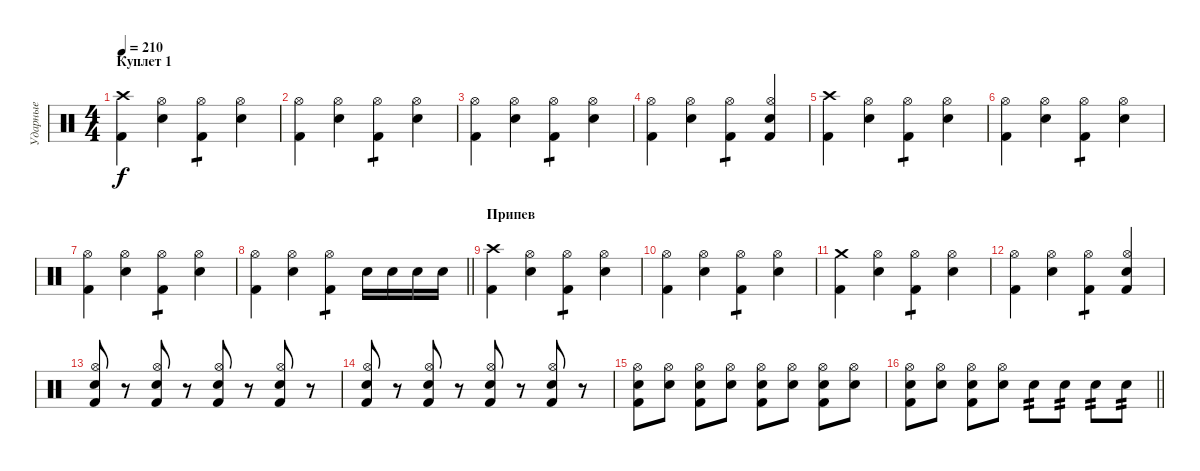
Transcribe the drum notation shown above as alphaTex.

\track ("Ударные" "Ударные") {instrument percussion}
\staff {score}
\articulation defaults
\ts (4 4)
\section ("" "Куплет 1")
\tempo 210
\clef neutral
\ks c
("Kick (hit) 2" "Crash high (hit)").4{dy f} ("Hi-Hat (open)" "Electric Snare (hit)").4 ("Kick (hit) 2" "Hi-Hat (open)").4{tp 1} ("Hi-Hat (open)" "Electric Snare (hit)").4 |
("Kick (hit) 2" "Hi-Hat (open)").4 ("Hi-Hat (open)" "Electric Snare (hit)").4 ("Kick (hit) 2" "Hi-Hat (open)").4{tp 1} ("Hi-Hat (open)" "Electric Snare (hit)").4 |
("Kick (hit) 2" "Hi-Hat (open)").4 ("Hi-Hat (open)" "Electric Snare (hit)").4 ("Kick (hit) 2" "Hi-Hat (open)").4{tp 1} ("Hi-Hat (open)" "Electric Snare (hit)").4 |
("Kick (hit) 2" "Hi-Hat (open)").4 ("Hi-Hat (open)" "Electric Snare (hit)").4 ("Kick (hit) 2" "Hi-Hat (open)").4{tp 1} ("Hi-Hat (open)" "Electric Snare (hit)" "Kick (hit) 2").4 |
("Kick (hit) 2" "Crash high (hit)").4 ("Hi-Hat (open)" "Electric Snare (hit)").4 ("Kick (hit) 2" "Hi-Hat (open)").4{tp 1} ("Hi-Hat (open)" "Electric Snare (hit)").4 |
("Kick (hit) 2" "Hi-Hat (open)").4 ("Hi-Hat (open)" "Electric Snare (hit)").4 ("Kick (hit) 2" "Hi-Hat (open)").4{tp 1} ("Hi-Hat (open)" "Electric Snare (hit)").4 |
("Kick (hit) 2" "Hi-Hat (open)").4 ("Hi-Hat (open)" "Electric Snare (hit)").4 ("Kick (hit) 2" "Hi-Hat (open)").4{tp 1} ("Hi-Hat (open)" "Electric Snare (hit)").4 |
\barLineRight lightlight
("Kick (hit) 2" "Hi-Hat (open)").4 ("Hi-Hat (open)" "Electric Snare (hit)").4 ("Kick (hit) 2" "Hi-Hat (open)").4{tp 1} "Electric Snare (hit)".16 "Electric Snare (hit)".16 "Electric Snare (hit)".16 "Electric Snare (hit)".16 |
\section ("" "Припев")
("Kick (hit) 2" "Crash high (hit)").4 ("Hi-Hat (open)" "Electric Snare (hit)").4 ("Kick (hit) 2" "Hi-Hat (open)").4{tp 1} ("Hi-Hat (open)" "Electric Snare (hit)").4 |
("Kick (hit) 2" "Hi-Hat (open)").4 ("Hi-Hat (open)" "Electric Snare (hit)").4 ("Kick (hit) 2" "Hi-Hat (open)").4{tp 1} ("Hi-Hat (open)" "Electric Snare (hit)").4 |
("Kick (hit) 2" "Crash medium (hit)").4 ("Hi-Hat (open)" "Electric Snare (hit)").4 ("Kick (hit) 2" "Hi-Hat (open)").4{tp 1} ("Hi-Hat (open)" "Electric Snare (hit)").4 |
("Kick (hit) 2" "Hi-Hat (open)").4 ("Hi-Hat (open)" "Electric Snare (hit)").4 ("Kick (hit) 2" "Hi-Hat (open)").4{tp 1} ("Hi-Hat (open)" "Electric Snare (hit)" "Kick (hit) 2").4 |
("Kick (hit) 2" "Hi-Hat (open)" "Electric Snare (hit)").8 r.8 ("Kick (hit) 2" "Hi-Hat (open)" "Electric Snare (hit)").8 r.8 ("Kick (hit) 2" "Hi-Hat (open)" "Electric Snare (hit)").8 r.8 ("Kick (hit) 2" "Hi-Hat (open)" "Electric Snare (hit)").8 r.8 |
("Kick (hit) 2" "Hi-Hat (open)" "Electric Snare (hit)").8 r.8 ("Kick (hit) 2" "Hi-Hat (open)" "Electric Snare (hit)").8 r.8 ("Kick (hit) 2" "Hi-Hat (open)" "Electric Snare (hit)").8 r.8 ("Kick (hit) 2" "Hi-Hat (open)" "Electric Snare (hit)").8 r.8 |
("Kick (hit) 2" "Hi-Hat (open)" "Electric Snare (hit)").8 ("Hi-Hat (open)" "Electric Snare (hit)").8 ("Kick (hit) 2" "Hi-Hat (open)" "Electric Snare (hit)").8 ("Hi-Hat (open)" "Electric Snare (hit)").8 ("Kick (hit) 2" "Hi-Hat (open)" "Electric Snare (hit)").8 ("Hi-Hat (open)" "Electric Snare (hit)").8 ("Kick (hit) 2" "Hi-Hat (open)" "Electric Snare (hit)").8 ("Hi-Hat (open)" "Electric Snare (hit)").8 |
\barLineRight lightlight
("Kick (hit) 2" "Hi-Hat (open)" "Electric Snare (hit)").8 ("Hi-Hat (open)" "Electric Snare (hit)").8 ("Kick (hit) 2" "Hi-Hat (open)" "Electric Snare (hit)").8 ("Hi-Hat (open)" "Electric Snare (hit)").8 "Electric Snare (hit)".8{tp 2} "Electric Snare (hit)".8{tp 2} "Electric Snare (hit)".8{tp 2} "Electric Snare (hit)".8{tp 2}
